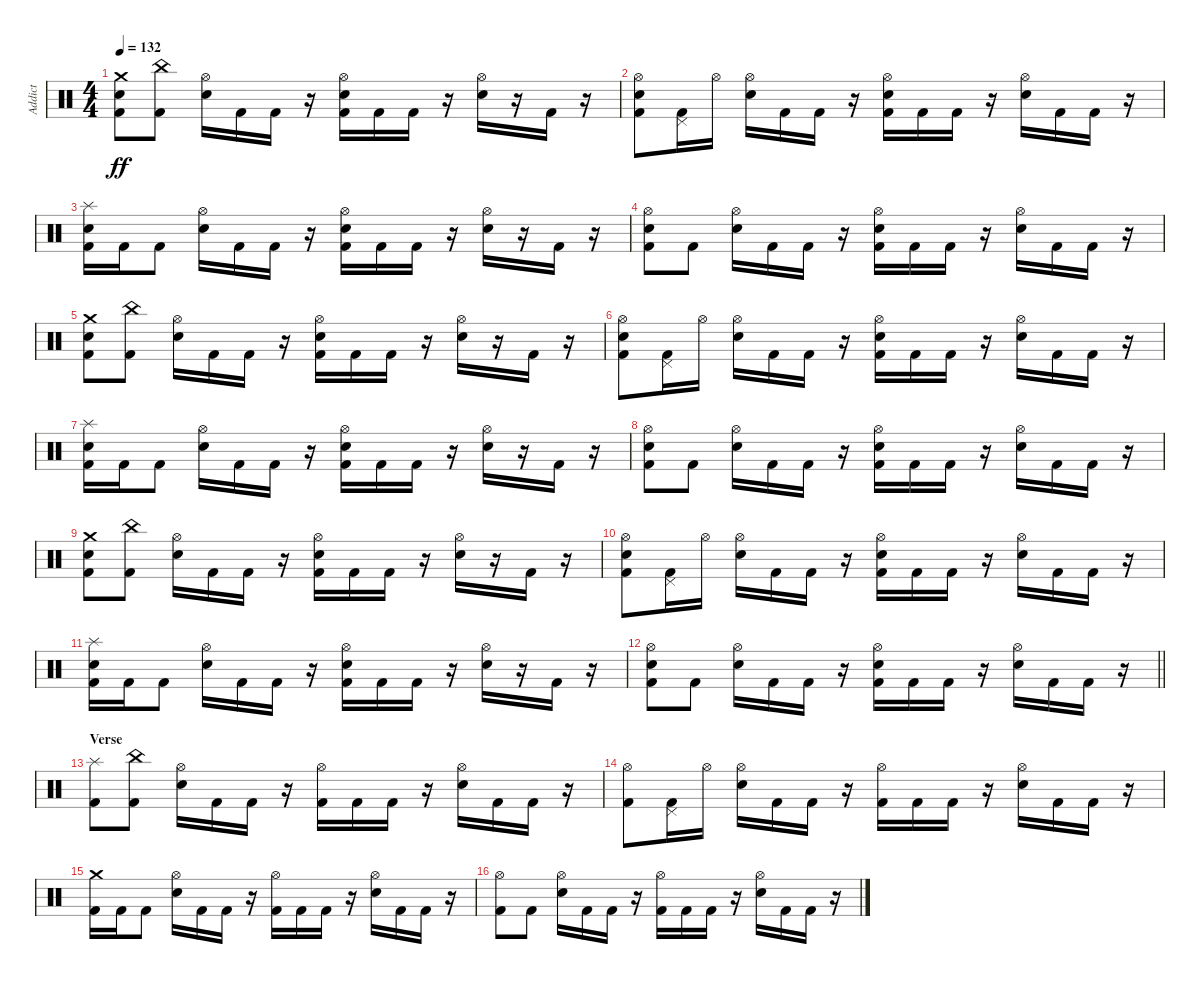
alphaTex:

\track ("Addict" "Addict") {instrument percussion}
\staff {score}
\articulation defaults
\ts (4 4)
\tempo 132
\clef neutral
\ks c
("Kick (hit) 2" "Snare (hit) 2" "Crash medium (hit)").8{dy ff} ("Kick (hit) 2" "China (hit)").8 ("Snare (hit) 2" "Hi-Hat (open)").16 "Kick (hit) 2".16 "Kick (hit) 2".16 r.16 ("Kick (hit) 2" "Snare (hit) 2" "Hi-Hat (open)").16 "Kick (hit) 2".16 "Kick (hit) 2".16 r.16 ("Snare (hit) 2" "Hi-Hat (open)").16 r.16 "Kick (hit) 2".16 r.16 |
("Kick (hit) 2" "Snare (hit) 2" "Hi-Hat (open)").8 ("Kick (hit) 2" "Pedal Hi-Hat (hit)").16 "Hi-Hat (open)".16 ("Snare (hit) 2" "Hi-Hat (open)").16 "Kick (hit) 2".16 "Kick (hit) 2".16 r.16 ("Kick (hit) 2" "Snare (hit) 2" "Hi-Hat (open)").16 "Kick (hit) 2".16 "Kick (hit) 2".16 r.16 ("Snare (hit) 2" "Hi-Hat (open)").16 "Kick (hit) 2".16 "Kick (hit) 2".16 r.16 |
("Kick (hit) 2" "Snare (hit) 2" "Splash (hit)").16 "Kick (hit) 2".16 "Kick (hit) 2".8 ("Snare (hit) 2" "Hi-Hat (open)").16 "Kick (hit) 2".16 "Kick (hit) 2".16 r.16 ("Kick (hit) 2" "Snare (hit) 2" "Hi-Hat (open)").16 "Kick (hit) 2".16 "Kick (hit) 2".16 r.16 ("Snare (hit) 2" "Hi-Hat (open)").16 r.16 "Kick (hit) 2".16 r.16 |
("Kick (hit) 2" "Snare (hit) 2" "Hi-Hat (open)").8 "Kick (hit) 2".8 ("Snare (hit) 2" "Hi-Hat (open)").16 "Kick (hit) 2".16 "Kick (hit) 2".16 r.16 ("Kick (hit) 2" "Snare (hit) 2" "Hi-Hat (open)").16 "Kick (hit) 2".16 "Kick (hit) 2".16 r.16 ("Snare (hit) 2" "Hi-Hat (open)").16 "Kick (hit) 2".16 "Kick (hit) 2".16 r.16 |
("Kick (hit) 2" "Snare (hit) 2" "Crash medium (hit)").8 ("Kick (hit) 2" "China (hit)").8 ("Snare (hit) 2" "Hi-Hat (open)").16 "Kick (hit) 2".16 "Kick (hit) 2".16 r.16 ("Kick (hit) 2" "Snare (hit) 2" "Hi-Hat (open)").16 "Kick (hit) 2".16 "Kick (hit) 2".16 r.16 ("Snare (hit) 2" "Hi-Hat (open)").16 r.16 "Kick (hit) 2".16 r.16 |
("Kick (hit) 2" "Snare (hit) 2" "Hi-Hat (open)").8 ("Kick (hit) 2" "Pedal Hi-Hat (hit)").16 "Hi-Hat (open)".16 ("Snare (hit) 2" "Hi-Hat (open)").16 "Kick (hit) 2".16 "Kick (hit) 2".16 r.16 ("Kick (hit) 2" "Snare (hit) 2" "Hi-Hat (open)").16 "Kick (hit) 2".16 "Kick (hit) 2".16 r.16 ("Snare (hit) 2" "Hi-Hat (open)").16 "Kick (hit) 2".16 "Kick (hit) 2".16 r.16 |
("Kick (hit) 2" "Snare (hit) 2" "Splash (hit)").16 "Kick (hit) 2".16 "Kick (hit) 2".8 ("Snare (hit) 2" "Hi-Hat (open)").16 "Kick (hit) 2".16 "Kick (hit) 2".16 r.16 ("Kick (hit) 2" "Snare (hit) 2" "Hi-Hat (open)").16 "Kick (hit) 2".16 "Kick (hit) 2".16 r.16 ("Snare (hit) 2" "Hi-Hat (open)").16 r.16 "Kick (hit) 2".16 r.16 |
("Kick (hit) 2" "Snare (hit) 2" "Hi-Hat (open)").8 "Kick (hit) 2".8 ("Snare (hit) 2" "Hi-Hat (open)").16 "Kick (hit) 2".16 "Kick (hit) 2".16 r.16 ("Kick (hit) 2" "Snare (hit) 2" "Hi-Hat (open)").16 "Kick (hit) 2".16 "Kick (hit) 2".16 r.16 ("Snare (hit) 2" "Hi-Hat (open)").16 "Kick (hit) 2".16 "Kick (hit) 2".16 r.16 |
("Kick (hit) 2" "Snare (hit) 2" "Crash medium (hit)").8 ("Kick (hit) 2" "China (hit)").8 ("Snare (hit) 2" "Hi-Hat (open)").16 "Kick (hit) 2".16 "Kick (hit) 2".16 r.16 ("Kick (hit) 2" "Snare (hit) 2" "Hi-Hat (open)").16 "Kick (hit) 2".16 "Kick (hit) 2".16 r.16 ("Snare (hit) 2" "Hi-Hat (open)").16 r.16 "Kick (hit) 2".16 r.16 |
("Kick (hit) 2" "Snare (hit) 2" "Hi-Hat (open)").8 ("Kick (hit) 2" "Pedal Hi-Hat (hit)").16 "Hi-Hat (open)".16 ("Snare (hit) 2" "Hi-Hat (open)").16 "Kick (hit) 2".16 "Kick (hit) 2".16 r.16 ("Kick (hit) 2" "Snare (hit) 2" "Hi-Hat (open)").16 "Kick (hit) 2".16 "Kick (hit) 2".16 r.16 ("Snare (hit) 2" "Hi-Hat (open)").16 "Kick (hit) 2".16 "Kick (hit) 2".16 r.16 |
("Kick (hit) 2" "Snare (hit) 2" "Splash (hit)").16 "Kick (hit) 2".16 "Kick (hit) 2".8 ("Snare (hit) 2" "Hi-Hat (open)").16 "Kick (hit) 2".16 "Kick (hit) 2".16 r.16 ("Kick (hit) 2" "Snare (hit) 2" "Hi-Hat (open)").16 "Kick (hit) 2".16 "Kick (hit) 2".16 r.16 ("Snare (hit) 2" "Hi-Hat (open)").16 r.16 "Kick (hit) 2".16 r.16 |
\barLineRight lightlight
("Kick (hit) 2" "Snare (hit) 2" "Hi-Hat (open)").8 "Kick (hit) 2".8 ("Snare (hit) 2" "Hi-Hat (open)").16 "Kick (hit) 2".16 "Kick (hit) 2".16 r.16 ("Kick (hit) 2" "Snare (hit) 2" "Hi-Hat (open)").16 "Kick (hit) 2".16 "Kick (hit) 2".16 r.16 ("Snare (hit) 2" "Hi-Hat (open)").16 "Kick (hit) 2".16 "Kick (hit) 2".16 r.16 |
\section ("" "Verse")
("Kick (hit) 2" "Splash (hit)").8 ("Kick (hit) 2" "China (hit)").8 ("Snare (hit) 2" "Hi-Hat (open)").16 "Kick (hit) 2".16 "Kick (hit) 2".16 r.16 ("Kick (hit) 2" "Hi-Hat (open)").16 "Kick (hit) 2".16 "Kick (hit) 2".16 r.16 ("Snare (hit) 2" "Hi-Hat (open)").16 "Kick (hit) 2".16 "Kick (hit) 2".16 r.16 |
("Kick (hit) 2" "Hi-Hat (open)").8 ("Kick (hit) 2" "Pedal Hi-Hat (hit)").16 "Hi-Hat (open)".16 ("Snare (hit) 2" "Hi-Hat (open)").16 "Kick (hit) 2".16 "Kick (hit) 2".16 r.16 ("Kick (hit) 2" "Hi-Hat (open)").16 "Kick (hit) 2".16 "Kick (hit) 2".16 r.16 ("Snare (hit) 2" "Hi-Hat (open)").16 "Kick (hit) 2".16 "Kick (hit) 2".16 r.16 |
("Kick (hit) 2" "Crash medium (hit)").16 "Kick (hit) 2".16 "Kick (hit) 2".8 ("Snare (hit) 2" "Hi-Hat (open)").16 "Kick (hit) 2".16 "Kick (hit) 2".16 r.16 ("Kick (hit) 2" "Hi-Hat (open)").16 "Kick (hit) 2".16 "Kick (hit) 2".16 r.16 ("Snare (hit) 2" "Hi-Hat (open)").16 "Kick (hit) 2".16 "Kick (hit) 2".16 r.16 |
("Kick (hit) 2" "Hi-Hat (open)").8 "Kick (hit) 2".8 ("Snare (hit) 2" "Hi-Hat (open)").16 "Kick (hit) 2".16 "Kick (hit) 2".16 r.16 ("Kick (hit) 2" "Hi-Hat (open)").16 "Kick (hit) 2".16 "Kick (hit) 2".16 r.16 ("Snare (hit) 2" "Hi-Hat (open)").16 "Kick (hit) 2".16 "Kick (hit) 2".16 r.16
